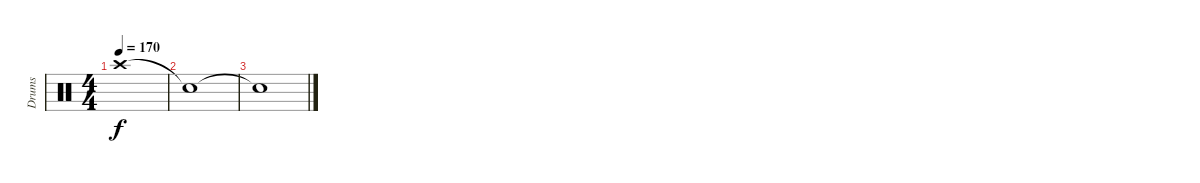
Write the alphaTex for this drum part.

\track ("Drums" "Drums") {instrument percussion}
\staff {score}
\articulation defaults
\ts (4 4)
\tempo 170
\clef neutral
\ks c "Crash high (hit)".1{dy f}
|
"Snare (hit)"{t}.1 |
"Snare (hit)"{t}.1
